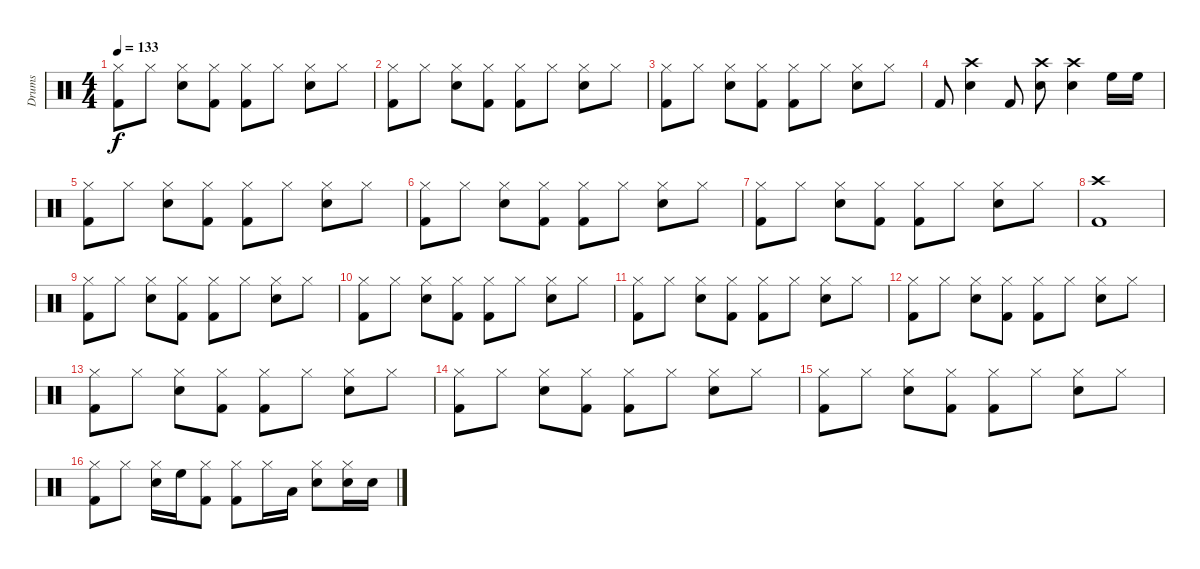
\track ("Drums" "Drums") {instrument percussion}
\staff {score}
\articulation defaults
\ts (4 4)
\tempo 133
\clef neutral
\ks c
("Kick (hit) 2" "Hi-Hat (closed)").8{dy f} "Hi-Hat (closed)".8 ("Snare (hit) 2" "Hi-Hat (closed)").8 ("Kick (hit) 2" "Hi-Hat (closed)").8 ("Kick (hit) 2" "Hi-Hat (closed)").8 "Hi-Hat (closed)".8 ("Snare (hit) 2" "Hi-Hat (closed)").8 "Hi-Hat (closed)".8 |
("Kick (hit) 2" "Hi-Hat (closed)").8 "Hi-Hat (closed)".8 ("Snare (hit) 2" "Hi-Hat (closed)").8 ("Kick (hit) 2" "Hi-Hat (closed)").8 ("Kick (hit) 2" "Hi-Hat (closed)").8 "Hi-Hat (closed)".8 ("Snare (hit) 2" "Hi-Hat (closed)").8 "Hi-Hat (closed)".8 |
("Kick (hit) 2" "Hi-Hat (closed)").8 "Hi-Hat (closed)".8 ("Snare (hit) 2" "Hi-Hat (closed)").8 ("Kick (hit) 2" "Hi-Hat (closed)").8 ("Kick (hit) 2" "Hi-Hat (closed)").8 "Hi-Hat (closed)".8 ("Snare (hit) 2" "Hi-Hat (closed)").8 "Hi-Hat (closed)".8 |
"Kick (hit) 2".8 ("Snare (hit) 2" "Crash high (hit)").4 "Kick (hit) 2".8 ("Snare (hit) 2" "Crash high (hit)").8 ("Snare (hit) 2" "Crash high (hit)").4 "High Floor Tom (hit)".16 "High Floor Tom (hit)".16 |
("Kick (hit) 2" "Hi-Hat (closed)").8 "Hi-Hat (closed)".8 ("Snare (hit) 2" "Hi-Hat (closed)").8 ("Kick (hit) 2" "Hi-Hat (closed)").8 ("Kick (hit) 2" "Hi-Hat (closed)").8 "Hi-Hat (closed)".8 ("Snare (hit) 2" "Hi-Hat (closed)").8 "Hi-Hat (closed)".8 |
("Kick (hit) 2" "Hi-Hat (closed)").8 "Hi-Hat (closed)".8 ("Snare (hit) 2" "Hi-Hat (closed)").8 ("Kick (hit) 2" "Hi-Hat (closed)").8 ("Kick (hit) 2" "Hi-Hat (closed)").8 "Hi-Hat (closed)".8 ("Snare (hit) 2" "Hi-Hat (closed)").8 "Hi-Hat (closed)".8 |
("Kick (hit) 2" "Hi-Hat (closed)").8 "Hi-Hat (closed)".8 ("Snare (hit) 2" "Hi-Hat (closed)").8 ("Kick (hit) 2" "Hi-Hat (closed)").8 ("Kick (hit) 2" "Hi-Hat (closed)").8 "Hi-Hat (closed)".8 ("Snare (hit) 2" "Hi-Hat (closed)").8 "Hi-Hat (closed)".8 |
("Kick (hit) 2" "Crash high (hit)").1 |
("Kick (hit) 2" "Hi-Hat (closed)").8 "Hi-Hat (closed)".8 ("Snare (hit) 2" "Hi-Hat (closed)").8 ("Kick (hit) 2" "Hi-Hat (closed)").8 ("Kick (hit) 2" "Hi-Hat (closed)").8 "Hi-Hat (closed)".8 ("Snare (hit) 2" "Hi-Hat (closed)").8 "Hi-Hat (closed)".8 |
("Kick (hit) 2" "Hi-Hat (closed)").8 "Hi-Hat (closed)".8 ("Snare (hit) 2" "Hi-Hat (closed)").8 ("Kick (hit) 2" "Hi-Hat (closed)").8 ("Kick (hit) 2" "Hi-Hat (closed)").8 "Hi-Hat (closed)".8 ("Snare (hit) 2" "Hi-Hat (closed)").8 "Hi-Hat (closed)".8 |
("Kick (hit) 2" "Hi-Hat (closed)").8 "Hi-Hat (closed)".8 ("Snare (hit) 2" "Hi-Hat (closed)").8 ("Kick (hit) 2" "Hi-Hat (closed)").8 ("Kick (hit) 2" "Hi-Hat (closed)").8 "Hi-Hat (closed)".8 ("Snare (hit) 2" "Hi-Hat (closed)").8 "Hi-Hat (closed)".8 |
("Kick (hit) 2" "Hi-Hat (closed)").8 "Hi-Hat (closed)".8 ("Snare (hit) 2" "Hi-Hat (closed)").8 ("Kick (hit) 2" "Hi-Hat (closed)").8 ("Kick (hit) 2" "Hi-Hat (closed)").8 "Hi-Hat (closed)".8 ("Snare (hit) 2" "Hi-Hat (closed)").8 "Hi-Hat (closed)".8 |
("Kick (hit) 2" "Hi-Hat (closed)").8 "Hi-Hat (closed)".8 ("Snare (hit) 2" "Hi-Hat (closed)").8 ("Kick (hit) 2" "Hi-Hat (closed)").8 ("Kick (hit) 2" "Hi-Hat (closed)").8 "Hi-Hat (closed)".8 ("Snare (hit) 2" "Hi-Hat (closed)").8 "Hi-Hat (closed)".8 |
("Kick (hit) 2" "Hi-Hat (closed)").8 "Hi-Hat (closed)".8 ("Snare (hit) 2" "Hi-Hat (closed)").8 ("Kick (hit) 2" "Hi-Hat (closed)").8 ("Kick (hit) 2" "Hi-Hat (closed)").8 "Hi-Hat (closed)".8 ("Snare (hit) 2" "Hi-Hat (closed)").8 "Hi-Hat (closed)".8 |
("Kick (hit) 2" "Hi-Hat (closed)").8 "Hi-Hat (closed)".8 ("Snare (hit) 2" "Hi-Hat (closed)").8 ("Kick (hit) 2" "Hi-Hat (closed)").8 ("Kick (hit) 2" "Hi-Hat (closed)").8 "Hi-Hat (closed)".8 ("Snare (hit) 2" "Hi-Hat (closed)").8 "Hi-Hat (closed)".8 |
("Kick (hit) 2" "Hi-Hat (closed)").8 "Hi-Hat (closed)".8 ("Snare (hit) 2" "Hi-Hat (closed)").16 "High Floor Tom (hit)".16 ("Kick (hit) 2" "Hi-Hat (closed)").8 ("Kick (hit) 2" "Hi-Hat (closed)").8 "Hi-Hat (closed)".16 "Low Tom (hit)".16 ("Snare (hit) 2" "Hi-Hat (closed)").8 ("Snare (hit) 2" "Hi-Hat (closed)").16 "Snare (hit) 2".16
